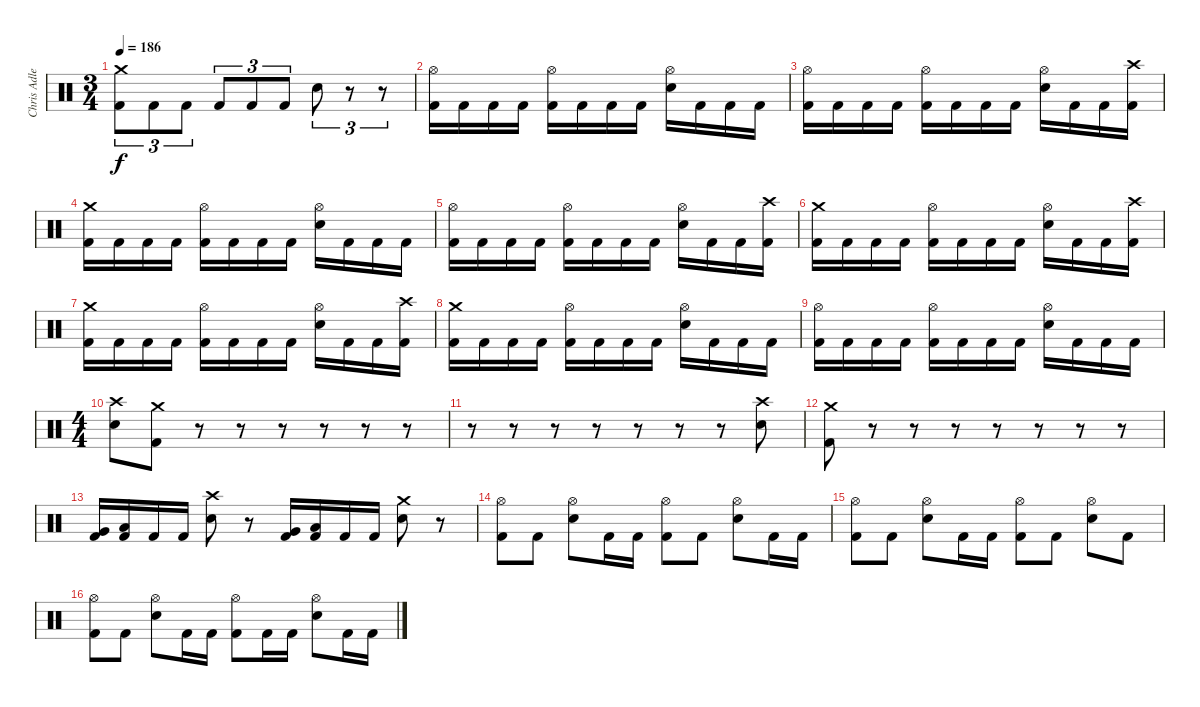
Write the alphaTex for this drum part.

\track ("Chris Adler" "Chris Adle") {instrument percussion}
\staff {score}
\articulation defaults
\ts (3 4)
\tempo 186
\clef neutral
\ks c
("Crash medium (hit)" "Kick (hit) 2").8{tu (3 2) dy f} "Kick (hit) 2".8{tu (3 2)} "Kick (hit) 2".8{tu (3 2)} "Kick (hit) 2".8{tu (3 2)} "Kick (hit) 2".8{tu (3 2)} "Kick (hit) 2".8{tu (3 2)} "Electric Snare (hit)".8{tu (3 2)} r.8{tu (3 2)} r.8{tu (3 2)} |
("Hi-Hat (open)" "Kick (hit) 2").16 "Kick (hit) 2".16 "Kick (hit) 2".16 "Kick (hit) 2".16 ("Hi-Hat (open)" "Kick (hit) 2").16 "Kick (hit) 2".16 "Kick (hit) 2".16 "Kick (hit) 2".16 ("Hi-Hat (open)" "Electric Snare (hit)").16 "Kick (hit) 2".16 "Kick (hit) 2".16 "Kick (hit) 2".16 |
("Hi-Hat (open)" "Kick (hit) 2").16 "Kick (hit) 2".16 "Kick (hit) 2".16 "Kick (hit) 2".16 ("Hi-Hat (open)" "Kick (hit) 2").16 "Kick (hit) 2".16 "Kick (hit) 2".16 "Kick (hit) 2".16 ("Hi-Hat (open)" "Electric Snare (hit)").16 "Kick (hit) 2".16 "Kick (hit) 2".16 ("Crash high (hit)" "Kick (hit) 2").16 |
("Crash medium (hit)" "Kick (hit) 2").16 "Kick (hit) 2".16 "Kick (hit) 2".16 "Kick (hit) 2".16 ("Hi-Hat (open)" "Kick (hit) 2").16 "Kick (hit) 2".16 "Kick (hit) 2".16 "Kick (hit) 2".16 ("Hi-Hat (open)" "Electric Snare (hit)").16 "Kick (hit) 2".16 "Kick (hit) 2".16 "Kick (hit) 2".16 |
("Hi-Hat (open)" "Kick (hit) 2").16 "Kick (hit) 2".16 "Kick (hit) 2".16 "Kick (hit) 2".16 ("Hi-Hat (open)" "Kick (hit) 2").16 "Kick (hit) 2".16 "Kick (hit) 2".16 "Kick (hit) 2".16 ("Hi-Hat (open)" "Electric Snare (hit)").16 "Kick (hit) 2".16 "Kick (hit) 2".16 ("Crash high (hit)" "Kick (hit) 2").16 |
("Crash medium (hit)" "Kick (hit) 2").16 "Kick (hit) 2".16 "Kick (hit) 2".16 "Kick (hit) 2".16 ("Hi-Hat (open)" "Kick (hit) 2").16 "Kick (hit) 2".16 "Kick (hit) 2".16 "Kick (hit) 2".16 ("Hi-Hat (open)" "Electric Snare (hit)").16 "Kick (hit) 2".16 "Kick (hit) 2".16 ("Crash high (hit)" "Kick (hit) 2").16 |
("Crash medium (hit)" "Kick (hit) 2").16 "Kick (hit) 2".16 "Kick (hit) 2".16 "Kick (hit) 2".16 ("Hi-Hat (open)" "Kick (hit) 2").16 "Kick (hit) 2".16 "Kick (hit) 2".16 "Kick (hit) 2".16 ("Hi-Hat (open)" "Electric Snare (hit)").16 "Kick (hit) 2".16 "Kick (hit) 2".16 ("Crash high (hit)" "Kick (hit) 2").16 |
("Crash medium (hit)" "Kick (hit) 2").16 "Kick (hit) 2".16 "Kick (hit) 2".16 "Kick (hit) 2".16 ("Hi-Hat (open)" "Kick (hit) 2").16 "Kick (hit) 2".16 "Kick (hit) 2".16 "Kick (hit) 2".16 ("Hi-Hat (open)" "Electric Snare (hit)").16 "Kick (hit) 2".16 "Kick (hit) 2".16 "Kick (hit) 2".16 |
("Hi-Hat (open)" "Kick (hit) 2").16 "Kick (hit) 2".16 "Kick (hit) 2".16 "Kick (hit) 2".16 ("Hi-Hat (open)" "Kick (hit) 2").16 "Kick (hit) 2".16 "Kick (hit) 2".16 "Kick (hit) 2".16 ("Hi-Hat (open)" "Electric Snare (hit)").16 "Kick (hit) 2".16 "Kick (hit) 2".16 "Kick (hit) 2".16 |
\ts (4 4)
("Crash high (hit)" "Electric Snare (hit)").8 ("Crash medium (hit)" "Kick (hit) 2").8 r.8 r.8 r.8 r.8 r.8 r.8 |
r.8 r.8 r.8 r.8 r.8 r.8 r.8 ("Crash high (hit)" "Electric Snare (hit)").8 |
("Crash medium (hit)" "Kick (hit) 2").8 r.8 r.8 r.8 r.8 r.8 r.8 r.8 |
("Very Low Tom (hit)" "Kick (hit) 2").16 ("Low Floor Tom (hit)" "Kick (hit) 2").16 "Kick (hit) 2".16 "Kick (hit) 2".16 ("Crash high (hit)" "Electric Snare (hit)").8 r.8 ("Very Low Tom (hit)" "Kick (hit) 2").16 ("Low Floor Tom (hit)" "Kick (hit) 2").16 "Kick (hit) 2".16 "Kick (hit) 2".16 ("Crash medium (hit)" "Electric Snare (hit)").8 r.8 |
("Hi-Hat (open)" "Kick (hit) 2").8 "Kick (hit) 2".8 ("Hi-Hat (open)" "Electric Snare (hit)").8 "Kick (hit) 2".16 "Kick (hit) 2".16 ("Hi-Hat (open)" "Kick (hit) 2").8 "Kick (hit) 2".8 ("Hi-Hat (open)" "Electric Snare (hit)").8 "Kick (hit) 2".16 "Kick (hit) 2".16 |
("Hi-Hat (open)" "Kick (hit) 2").8 "Kick (hit) 2".8 ("Hi-Hat (open)" "Electric Snare (hit)").8 "Kick (hit) 2".16 "Kick (hit) 2".16 ("Hi-Hat (open)" "Kick (hit) 2").8 "Kick (hit) 2".8 ("Hi-Hat (open)" "Electric Snare (hit)").8 "Kick (hit) 2".8 |
("Hi-Hat (open)" "Kick (hit) 2").8 "Kick (hit) 2".8 ("Hi-Hat (open)" "Electric Snare (hit)").8 "Kick (hit) 2".16 "Kick (hit) 2".16 ("Hi-Hat (open)" "Kick (hit) 2").8 "Kick (hit) 2".16 "Kick (hit) 2".16 ("Hi-Hat (open)" "Electric Snare (hit)").8 "Kick (hit) 2".16 "Kick (hit) 2".16
